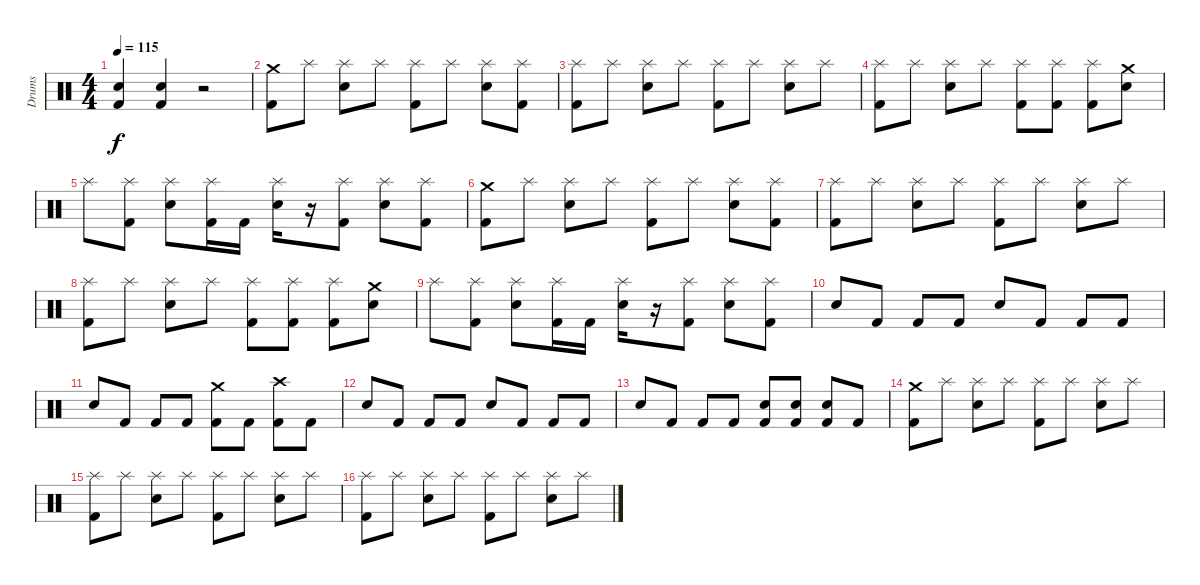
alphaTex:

\track ("Drums" "Drums") {instrument percussion}
\staff {score}
\articulation defaults
\ts (4 4)
\tempo 115
\clef neutral
\ks c
("Snare (hit) 2" "Kick (hit) 2").4{dy f} ("Snare (hit) 2" "Kick (hit) 2").4 r.2 |
("Crash medium (hit)" "Kick (hit) 2").8 "Splash (hit)".8 ("Splash (hit)" "Snare (hit) 2").8 "Splash (hit)".8 ("Splash (hit)" "Kick (hit) 2").8 "Splash (hit)".8 ("Splash (hit)" "Snare (hit) 2").8 ("Splash (hit)" "Kick (hit) 2").8 |
("Splash (hit)" "Kick (hit) 2").8 "Splash (hit)".8 ("Splash (hit)" "Snare (hit) 2").8 "Splash (hit)".8 ("Splash (hit)" "Kick (hit) 2").8 "Splash (hit)".8 ("Splash (hit)" "Snare (hit) 2").8 "Splash (hit)".8 |
("Splash (hit)" "Kick (hit) 2").8 "Splash (hit)".8 ("Splash (hit)" "Snare (hit) 2").8 "Splash (hit)".8 ("Splash (hit)" "Kick (hit) 2").8 ("Splash (hit)" "Kick (hit) 2").8 ("Splash (hit)" "Kick (hit) 2").8 ("Crash medium (hit)" "Snare (hit) 2").8 |
"Splash (hit)".8 ("Splash (hit)" "Kick (hit) 2").8 ("Splash (hit)" "Snare (hit) 2").8 ("Splash (hit)" "Kick (hit) 2").16 "Kick (hit) 2".16 ("Splash (hit)" "Snare (hit) 2").16 r.16 ("Splash (hit)" "Kick (hit) 2").8 ("Splash (hit)" "Snare (hit) 2").8 ("Splash (hit)" "Kick (hit) 2").8 |
("Crash medium (hit)" "Kick (hit) 2").8 "Splash (hit)".8 ("Splash (hit)" "Snare (hit) 2").8 "Splash (hit)".8 ("Splash (hit)" "Kick (hit) 2").8 "Splash (hit)".8 ("Splash (hit)" "Snare (hit) 2").8 ("Splash (hit)" "Kick (hit) 2").8 |
("Splash (hit)" "Kick (hit) 2").8 "Splash (hit)".8 ("Splash (hit)" "Snare (hit) 2").8 "Splash (hit)".8 ("Splash (hit)" "Kick (hit) 2").8 "Splash (hit)".8 ("Splash (hit)" "Snare (hit) 2").8 "Splash (hit)".8 |
("Splash (hit)" "Kick (hit) 2").8 "Splash (hit)".8 ("Splash (hit)" "Snare (hit) 2").8 "Splash (hit)".8 ("Splash (hit)" "Kick (hit) 2").8 ("Splash (hit)" "Kick (hit) 2").8 ("Splash (hit)" "Kick (hit) 2").8 ("Crash medium (hit)" "Snare (hit) 2").8 |
"Splash (hit)".8 ("Splash (hit)" "Kick (hit) 2").8 ("Splash (hit)" "Snare (hit) 2").8 ("Splash (hit)" "Kick (hit) 2").16 "Kick (hit) 2".16 ("Splash (hit)" "Snare (hit) 2").16 r.16 ("Splash (hit)" "Kick (hit) 2").8 ("Splash (hit)" "Snare (hit) 2").8 ("Splash (hit)" "Kick (hit) 2").8 |
"Snare (hit) 2".8 "Kick (hit) 2".8 "Kick (hit) 2".8 "Kick (hit) 2".8 "Snare (hit) 2".8 "Kick (hit) 2".8 "Kick (hit) 2".8 "Kick (hit) 2".8 |
"Snare (hit) 2".8 "Kick (hit) 2".8 "Kick (hit) 2".8 "Kick (hit) 2".8 ("Crash medium (hit)" "Kick (hit) 2").8 "Kick (hit) 2".8 ("Crash high (hit)" "Kick (hit) 2").8 "Kick (hit) 2".8 |
"Snare (hit) 2".8 "Kick (hit) 2".8 "Kick (hit) 2".8 "Kick (hit) 2".8 "Snare (hit) 2".8 "Kick (hit) 2".8 "Kick (hit) 2".8 "Kick (hit) 2".8 |
"Snare (hit) 2".8 "Kick (hit) 2".8 "Kick (hit) 2".8 "Kick (hit) 2".8 ("Snare (hit) 2" "Kick (hit) 2").8 ("Snare (hit) 2" "Kick (hit) 2").8 ("Snare (hit) 2" "Kick (hit) 2").8 "Kick (hit) 2".8 |
("Crash medium (hit)" "Kick (hit) 2").8 "Splash (hit)".8 ("Splash (hit)" "Snare (hit) 2").8 "Splash (hit)".8 ("Splash (hit)" "Kick (hit) 2").8 "Splash (hit)".8 ("Splash (hit)" "Snare (hit) 2").8 "Splash (hit)".8 |
("Splash (hit)" "Kick (hit) 2").8 "Splash (hit)".8 ("Splash (hit)" "Snare (hit) 2").8 "Splash (hit)".8 ("Splash (hit)" "Kick (hit) 2").8 "Splash (hit)".8 ("Splash (hit)" "Snare (hit) 2").8 "Splash (hit)".8 |
("Splash (hit)" "Kick (hit) 2").8 "Splash (hit)".8 ("Splash (hit)" "Snare (hit) 2").8 "Splash (hit)".8 ("Splash (hit)" "Kick (hit) 2").8 "Splash (hit)".8 ("Splash (hit)" "Snare (hit) 2").8 "Splash (hit)".8
